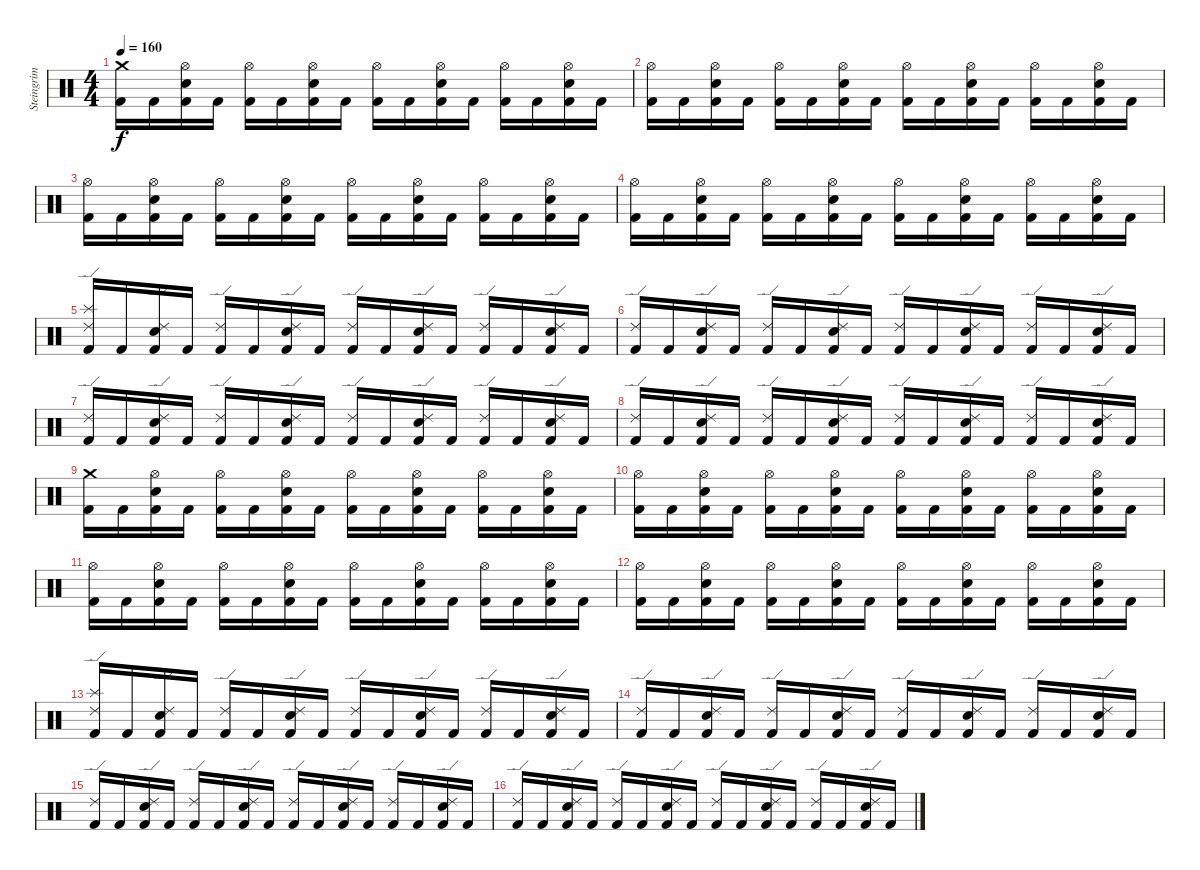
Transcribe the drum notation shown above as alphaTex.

\track ("Steingrim Trommur" "Steingrim ") {instrument percussion}
\staff {score}
\articulation defaults
\ts (4 4)
\tempo 160
\clef neutral
\ks c
("Crash medium (hit)" "Kick (hit) 2").16{dy f} "Kick (hit) 2".16 ("Hi-Hat (open)" "Electric Snare (hit)" "Kick (hit) 2").16 "Kick (hit) 2".16 ("Hi-Hat (open)" "Kick (hit) 2").16 "Kick (hit) 2".16 ("Hi-Hat (open)" "Electric Snare (hit)" "Kick (hit) 2").16 "Kick (hit) 2".16 ("Hi-Hat (open)" "Kick (hit) 2").16 "Kick (hit) 2".16 ("Hi-Hat (open)" "Electric Snare (hit)" "Kick (hit) 2").16 "Kick (hit) 2".16 ("Hi-Hat (open)" "Kick (hit) 2").16 "Kick (hit) 2".16 ("Hi-Hat (open)" "Electric Snare (hit)" "Kick (hit) 2").16 "Kick (hit) 2".16 |
("Hi-Hat (open)" "Kick (hit) 2").16 "Kick (hit) 2".16 ("Hi-Hat (open)" "Electric Snare (hit)" "Kick (hit) 2").16 "Kick (hit) 2".16 ("Hi-Hat (open)" "Kick (hit) 2").16 "Kick (hit) 2".16 ("Hi-Hat (open)" "Electric Snare (hit)" "Kick (hit) 2").16 "Kick (hit) 2".16 ("Hi-Hat (open)" "Kick (hit) 2").16 "Kick (hit) 2".16 ("Hi-Hat (open)" "Electric Snare (hit)" "Kick (hit) 2").16 "Kick (hit) 2".16 ("Hi-Hat (open)" "Kick (hit) 2").16 "Kick (hit) 2".16 ("Hi-Hat (open)" "Electric Snare (hit)" "Kick (hit) 2").16 "Kick (hit) 2".16 |
("Hi-Hat (open)" "Kick (hit) 2").16 "Kick (hit) 2".16 ("Hi-Hat (open)" "Electric Snare (hit)" "Kick (hit) 2").16 "Kick (hit) 2".16 ("Hi-Hat (open)" "Kick (hit) 2").16 "Kick (hit) 2".16 ("Hi-Hat (open)" "Electric Snare (hit)" "Kick (hit) 2").16 "Kick (hit) 2".16 ("Hi-Hat (open)" "Kick (hit) 2").16 "Kick (hit) 2".16 ("Hi-Hat (open)" "Electric Snare (hit)" "Kick (hit) 2").16 "Kick (hit) 2".16 ("Hi-Hat (open)" "Kick (hit) 2").16 "Kick (hit) 2".16 ("Hi-Hat (open)" "Electric Snare (hit)" "Kick (hit) 2").16 "Kick (hit) 2".16 |
("Hi-Hat (open)" "Kick (hit) 2").16 "Kick (hit) 2".16 ("Hi-Hat (open)" "Electric Snare (hit)" "Kick (hit) 2").16 "Kick (hit) 2".16 ("Hi-Hat (open)" "Kick (hit) 2").16 "Kick (hit) 2".16 ("Hi-Hat (open)" "Electric Snare (hit)" "Kick (hit) 2").16 "Kick (hit) 2".16 ("Hi-Hat (open)" "Kick (hit) 2").16 "Kick (hit) 2".16 ("Hi-Hat (open)" "Electric Snare (hit)" "Kick (hit) 2").16 "Kick (hit) 2".16 ("Hi-Hat (open)" "Kick (hit) 2").16 "Kick (hit) 2".16 ("Hi-Hat (open)" "Electric Snare (hit)" "Kick (hit) 2").16 "Kick (hit) 2".16 |
("Splash (hit)" "Ride (edge) 2" "Kick (hit) 2").16 "Kick (hit) 2".16 ("Ride (edge) 2" "Electric Snare (hit)" "Kick (hit) 2").16 "Kick (hit) 2".16 ("Ride (edge) 2" "Kick (hit) 2").16 "Kick (hit) 2".16 ("Ride (edge) 2" "Electric Snare (hit)" "Kick (hit) 2").16 "Kick (hit) 2".16 ("Ride (edge) 2" "Kick (hit) 2").16 "Kick (hit) 2".16 ("Ride (edge) 2" "Electric Snare (hit)" "Kick (hit) 2").16 "Kick (hit) 2".16 ("Ride (edge) 2" "Kick (hit) 2").16 "Kick (hit) 2".16 ("Ride (edge) 2" "Electric Snare (hit)" "Kick (hit) 2").16 "Kick (hit) 2".16 |
("Ride (edge) 2" "Kick (hit) 2").16 "Kick (hit) 2".16 ("Ride (edge) 2" "Electric Snare (hit)" "Kick (hit) 2").16 "Kick (hit) 2".16 ("Ride (edge) 2" "Kick (hit) 2").16 "Kick (hit) 2".16 ("Ride (edge) 2" "Electric Snare (hit)" "Kick (hit) 2").16 "Kick (hit) 2".16 ("Ride (edge) 2" "Kick (hit) 2").16 "Kick (hit) 2".16 ("Ride (edge) 2" "Electric Snare (hit)" "Kick (hit) 2").16 "Kick (hit) 2".16 ("Ride (edge) 2" "Kick (hit) 2").16 "Kick (hit) 2".16 ("Ride (edge) 2" "Electric Snare (hit)" "Kick (hit) 2").16 "Kick (hit) 2".16 |
("Ride (edge) 2" "Kick (hit) 2").16 "Kick (hit) 2".16 ("Ride (edge) 2" "Electric Snare (hit)" "Kick (hit) 2").16 "Kick (hit) 2".16 ("Ride (edge) 2" "Kick (hit) 2").16 "Kick (hit) 2".16 ("Ride (edge) 2" "Electric Snare (hit)" "Kick (hit) 2").16 "Kick (hit) 2".16 ("Ride (edge) 2" "Kick (hit) 2").16 "Kick (hit) 2".16 ("Ride (edge) 2" "Electric Snare (hit)" "Kick (hit) 2").16 "Kick (hit) 2".16 ("Ride (edge) 2" "Kick (hit) 2").16 "Kick (hit) 2".16 ("Ride (edge) 2" "Electric Snare (hit)" "Kick (hit) 2").16 "Kick (hit) 2".16 |
("Ride (edge) 2" "Kick (hit) 2").16 "Kick (hit) 2".16 ("Ride (edge) 2" "Electric Snare (hit)" "Kick (hit) 2").16 "Kick (hit) 2".16 ("Ride (edge) 2" "Kick (hit) 2").16 "Kick (hit) 2".16 ("Ride (edge) 2" "Electric Snare (hit)" "Kick (hit) 2").16 "Kick (hit) 2".16 ("Ride (edge) 2" "Kick (hit) 2").16 "Kick (hit) 2".16 ("Ride (edge) 2" "Electric Snare (hit)" "Kick (hit) 2").16 "Kick (hit) 2".16 ("Ride (edge) 2" "Kick (hit) 2").16 "Kick (hit) 2".16 ("Ride (edge) 2" "Electric Snare (hit)" "Kick (hit) 2").16 "Kick (hit) 2".16 |
("Crash medium (hit)" "Kick (hit) 2").16 "Kick (hit) 2".16 ("Hi-Hat (open)" "Electric Snare (hit)" "Kick (hit) 2").16 "Kick (hit) 2".16 ("Hi-Hat (open)" "Kick (hit) 2").16 "Kick (hit) 2".16 ("Hi-Hat (open)" "Electric Snare (hit)" "Kick (hit) 2").16 "Kick (hit) 2".16 ("Hi-Hat (open)" "Kick (hit) 2").16 "Kick (hit) 2".16 ("Hi-Hat (open)" "Electric Snare (hit)" "Kick (hit) 2").16 "Kick (hit) 2".16 ("Hi-Hat (open)" "Kick (hit) 2").16 "Kick (hit) 2".16 ("Hi-Hat (open)" "Electric Snare (hit)" "Kick (hit) 2").16 "Kick (hit) 2".16 |
("Hi-Hat (open)" "Kick (hit) 2").16 "Kick (hit) 2".16 ("Hi-Hat (open)" "Electric Snare (hit)" "Kick (hit) 2").16 "Kick (hit) 2".16 ("Hi-Hat (open)" "Kick (hit) 2").16 "Kick (hit) 2".16 ("Hi-Hat (open)" "Electric Snare (hit)" "Kick (hit) 2").16 "Kick (hit) 2".16 ("Hi-Hat (open)" "Kick (hit) 2").16 "Kick (hit) 2".16 ("Hi-Hat (open)" "Electric Snare (hit)" "Kick (hit) 2").16 "Kick (hit) 2".16 ("Hi-Hat (open)" "Kick (hit) 2").16 "Kick (hit) 2".16 ("Hi-Hat (open)" "Electric Snare (hit)" "Kick (hit) 2").16 "Kick (hit) 2".16 |
("Hi-Hat (open)" "Kick (hit) 2").16 "Kick (hit) 2".16 ("Hi-Hat (open)" "Electric Snare (hit)" "Kick (hit) 2").16 "Kick (hit) 2".16 ("Hi-Hat (open)" "Kick (hit) 2").16 "Kick (hit) 2".16 ("Hi-Hat (open)" "Electric Snare (hit)" "Kick (hit) 2").16 "Kick (hit) 2".16 ("Hi-Hat (open)" "Kick (hit) 2").16 "Kick (hit) 2".16 ("Hi-Hat (open)" "Electric Snare (hit)" "Kick (hit) 2").16 "Kick (hit) 2".16 ("Hi-Hat (open)" "Kick (hit) 2").16 "Kick (hit) 2".16 ("Hi-Hat (open)" "Electric Snare (hit)" "Kick (hit) 2").16 "Kick (hit) 2".16 |
("Hi-Hat (open)" "Kick (hit) 2").16 "Kick (hit) 2".16 ("Hi-Hat (open)" "Electric Snare (hit)" "Kick (hit) 2").16 "Kick (hit) 2".16 ("Hi-Hat (open)" "Kick (hit) 2").16 "Kick (hit) 2".16 ("Hi-Hat (open)" "Electric Snare (hit)" "Kick (hit) 2").16 "Kick (hit) 2".16 ("Hi-Hat (open)" "Kick (hit) 2").16 "Kick (hit) 2".16 ("Hi-Hat (open)" "Electric Snare (hit)" "Kick (hit) 2").16 "Kick (hit) 2".16 ("Hi-Hat (open)" "Kick (hit) 2").16 "Kick (hit) 2".16 ("Hi-Hat (open)" "Electric Snare (hit)" "Kick (hit) 2").16 "Kick (hit) 2".16 |
("Splash (hit)" "Ride (edge) 2" "Kick (hit) 2").16 "Kick (hit) 2".16 ("Ride (edge) 2" "Electric Snare (hit)" "Kick (hit) 2").16 "Kick (hit) 2".16 ("Ride (edge) 2" "Kick (hit) 2").16 "Kick (hit) 2".16 ("Ride (edge) 2" "Electric Snare (hit)" "Kick (hit) 2").16 "Kick (hit) 2".16 ("Ride (edge) 2" "Kick (hit) 2").16 "Kick (hit) 2".16 ("Ride (edge) 2" "Electric Snare (hit)" "Kick (hit) 2").16 "Kick (hit) 2".16 ("Ride (edge) 2" "Kick (hit) 2").16 "Kick (hit) 2".16 ("Ride (edge) 2" "Electric Snare (hit)" "Kick (hit) 2").16 "Kick (hit) 2".16 |
("Ride (edge) 2" "Kick (hit) 2").16 "Kick (hit) 2".16 ("Ride (edge) 2" "Electric Snare (hit)" "Kick (hit) 2").16 "Kick (hit) 2".16 ("Ride (edge) 2" "Kick (hit) 2").16 "Kick (hit) 2".16 ("Ride (edge) 2" "Electric Snare (hit)" "Kick (hit) 2").16 "Kick (hit) 2".16 ("Ride (edge) 2" "Kick (hit) 2").16 "Kick (hit) 2".16 ("Ride (edge) 2" "Electric Snare (hit)" "Kick (hit) 2").16 "Kick (hit) 2".16 ("Ride (edge) 2" "Kick (hit) 2").16 "Kick (hit) 2".16 ("Ride (edge) 2" "Electric Snare (hit)" "Kick (hit) 2").16 "Kick (hit) 2".16 |
("Ride (edge) 2" "Kick (hit) 2").16 "Kick (hit) 2".16 ("Ride (edge) 2" "Electric Snare (hit)" "Kick (hit) 2").16 "Kick (hit) 2".16 ("Ride (edge) 2" "Kick (hit) 2").16 "Kick (hit) 2".16 ("Ride (edge) 2" "Electric Snare (hit)" "Kick (hit) 2").16 "Kick (hit) 2".16 ("Ride (edge) 2" "Kick (hit) 2").16 "Kick (hit) 2".16 ("Ride (edge) 2" "Electric Snare (hit)" "Kick (hit) 2").16 "Kick (hit) 2".16 ("Ride (edge) 2" "Kick (hit) 2").16 "Kick (hit) 2".16 ("Ride (edge) 2" "Electric Snare (hit)" "Kick (hit) 2").16 "Kick (hit) 2".16 |
("Ride (edge) 2" "Kick (hit) 2").16 "Kick (hit) 2".16 ("Ride (edge) 2" "Electric Snare (hit)" "Kick (hit) 2").16 "Kick (hit) 2".16 ("Ride (edge) 2" "Kick (hit) 2").16 "Kick (hit) 2".16 ("Ride (edge) 2" "Electric Snare (hit)" "Kick (hit) 2").16 "Kick (hit) 2".16 ("Ride (edge) 2" "Kick (hit) 2").16 "Kick (hit) 2".16 ("Ride (edge) 2" "Electric Snare (hit)" "Kick (hit) 2").16 "Kick (hit) 2".16 ("Ride (edge) 2" "Kick (hit) 2").16 "Kick (hit) 2".16 ("Ride (edge) 2" "Electric Snare (hit)" "Kick (hit) 2").16 "Kick (hit) 2".16
